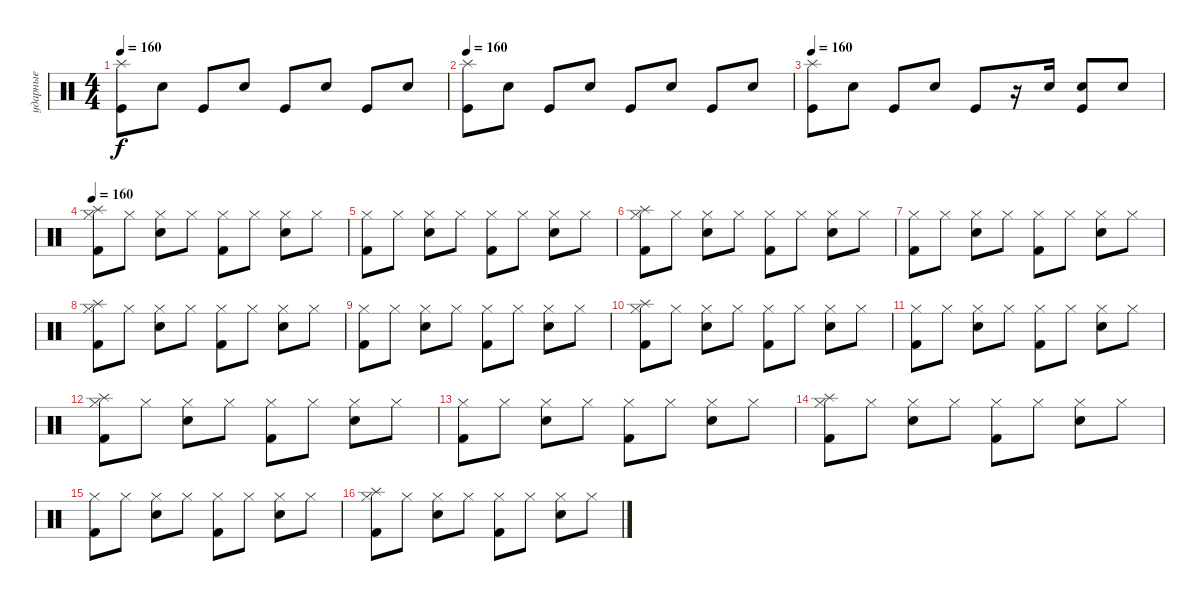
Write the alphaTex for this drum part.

\track ("ударные" "ударные") {instrument percussion}
\staff {score}
\articulation defaults
\ts (4 4)
\tempo 160
\clef neutral
\ks c
("Splash (hit)" "Kick (hit)").8{dy f} "Electric Snare (hit)".8 "Kick (hit)".8 "Electric Snare (hit)".8 "Kick (hit)".8 "Electric Snare (hit)".8 "Kick (hit)".8 "Electric Snare (hit)".8 |
\tempo 160
("Splash (hit)" "Kick (hit)").8 "Electric Snare (hit)".8 "Kick (hit)".8 "Electric Snare (hit)".8 "Kick (hit)".8 "Electric Snare (hit)".8 "Kick (hit)".8 "Electric Snare (hit)".8 |
\tempo 160
("Splash (hit)" "Kick (hit)").8 "Electric Snare (hit)".8 "Kick (hit)".8 "Electric Snare (hit)".8 "Kick (hit)".8 r.16 "Electric Snare (hit)".16 ("Electric Snare (hit)" "Kick (hit)").8 "Electric Snare (hit)".8 |
\tempo 160
("Splash (hit)" "Kick (hit) 2" "Hi-Hat (closed)").8 "Hi-Hat (closed)".8 ("Electric Snare (hit)" "Hi-Hat (closed)").8 "Hi-Hat (closed)".8 ("Kick (hit) 2" "Hi-Hat (closed)").8 "Hi-Hat (closed)".8 ("Electric Snare (hit)" "Hi-Hat (closed)").8 "Hi-Hat (closed)".8 |
("Kick (hit) 2" "Hi-Hat (closed)").8 "Hi-Hat (closed)".8 ("Electric Snare (hit)" "Hi-Hat (closed)").8 "Hi-Hat (closed)".8 ("Kick (hit) 2" "Hi-Hat (closed)").8 "Hi-Hat (closed)".8 ("Electric Snare (hit)" "Hi-Hat (closed)").8 "Hi-Hat (closed)".8 |
("Splash (hit)" "Kick (hit) 2" "Hi-Hat (closed)").8 "Hi-Hat (closed)".8 ("Electric Snare (hit)" "Hi-Hat (closed)").8 "Hi-Hat (closed)".8 ("Kick (hit) 2" "Hi-Hat (closed)").8 "Hi-Hat (closed)".8 ("Electric Snare (hit)" "Hi-Hat (closed)").8 "Hi-Hat (closed)".8 |
("Kick (hit) 2" "Hi-Hat (closed)").8 "Hi-Hat (closed)".8 ("Electric Snare (hit)" "Hi-Hat (closed)").8 "Hi-Hat (closed)".8 ("Kick (hit) 2" "Hi-Hat (closed)").8 "Hi-Hat (closed)".8 ("Electric Snare (hit)" "Hi-Hat (closed)").8 "Hi-Hat (closed)".8 |
("Splash (hit)" "Kick (hit) 2" "Hi-Hat (closed)").8 "Hi-Hat (closed)".8 ("Electric Snare (hit)" "Hi-Hat (closed)").8 "Hi-Hat (closed)".8 ("Kick (hit) 2" "Hi-Hat (closed)").8 "Hi-Hat (closed)".8 ("Electric Snare (hit)" "Hi-Hat (closed)").8 "Hi-Hat (closed)".8 |
("Kick (hit) 2" "Hi-Hat (closed)").8 "Hi-Hat (closed)".8 ("Electric Snare (hit)" "Hi-Hat (closed)").8 "Hi-Hat (closed)".8 ("Kick (hit) 2" "Hi-Hat (closed)").8 "Hi-Hat (closed)".8 ("Electric Snare (hit)" "Hi-Hat (closed)").8 "Hi-Hat (closed)".8 |
("Splash (hit)" "Kick (hit) 2" "Hi-Hat (closed)").8 "Hi-Hat (closed)".8 ("Electric Snare (hit)" "Hi-Hat (closed)").8 "Hi-Hat (closed)".8 ("Kick (hit) 2" "Hi-Hat (closed)").8 "Hi-Hat (closed)".8 ("Electric Snare (hit)" "Hi-Hat (closed)").8 "Hi-Hat (closed)".8 |
("Kick (hit) 2" "Hi-Hat (closed)").8 "Hi-Hat (closed)".8 ("Electric Snare (hit)" "Hi-Hat (closed)").8 "Hi-Hat (closed)".8 ("Kick (hit) 2" "Hi-Hat (closed)").8 "Hi-Hat (closed)".8 ("Electric Snare (hit)" "Hi-Hat (closed)").8 "Hi-Hat (closed)".8 |
("Splash (hit)" "Kick (hit) 2" "Hi-Hat (closed)").8 "Hi-Hat (closed)".8 ("Electric Snare (hit)" "Hi-Hat (closed)").8 "Hi-Hat (closed)".8 ("Kick (hit) 2" "Hi-Hat (closed)").8 "Hi-Hat (closed)".8 ("Electric Snare (hit)" "Hi-Hat (closed)").8 "Hi-Hat (closed)".8 |
("Kick (hit) 2" "Hi-Hat (closed)").8 "Hi-Hat (closed)".8 ("Electric Snare (hit)" "Hi-Hat (closed)").8 "Hi-Hat (closed)".8 ("Kick (hit) 2" "Hi-Hat (closed)").8 "Hi-Hat (closed)".8 ("Electric Snare (hit)" "Hi-Hat (closed)").8 "Hi-Hat (closed)".8 |
("Splash (hit)" "Kick (hit) 2" "Hi-Hat (closed)").8 "Hi-Hat (closed)".8 ("Electric Snare (hit)" "Hi-Hat (closed)").8 "Hi-Hat (closed)".8 ("Kick (hit) 2" "Hi-Hat (closed)").8 "Hi-Hat (closed)".8 ("Electric Snare (hit)" "Hi-Hat (closed)").8 "Hi-Hat (closed)".8 |
("Kick (hit) 2" "Hi-Hat (closed)").8 "Hi-Hat (closed)".8 ("Electric Snare (hit)" "Hi-Hat (closed)").8 "Hi-Hat (closed)".8 ("Kick (hit) 2" "Hi-Hat (closed)").8 "Hi-Hat (closed)".8 ("Electric Snare (hit)" "Hi-Hat (closed)").8 "Hi-Hat (closed)".8 |
("Splash (hit)" "Kick (hit) 2" "Hi-Hat (closed)").8 "Hi-Hat (closed)".8 ("Electric Snare (hit)" "Hi-Hat (closed)").8 "Hi-Hat (closed)".8 ("Kick (hit) 2" "Hi-Hat (closed)").8 "Hi-Hat (closed)".8 ("Electric Snare (hit)" "Hi-Hat (closed)").8 "Hi-Hat (closed)".8
